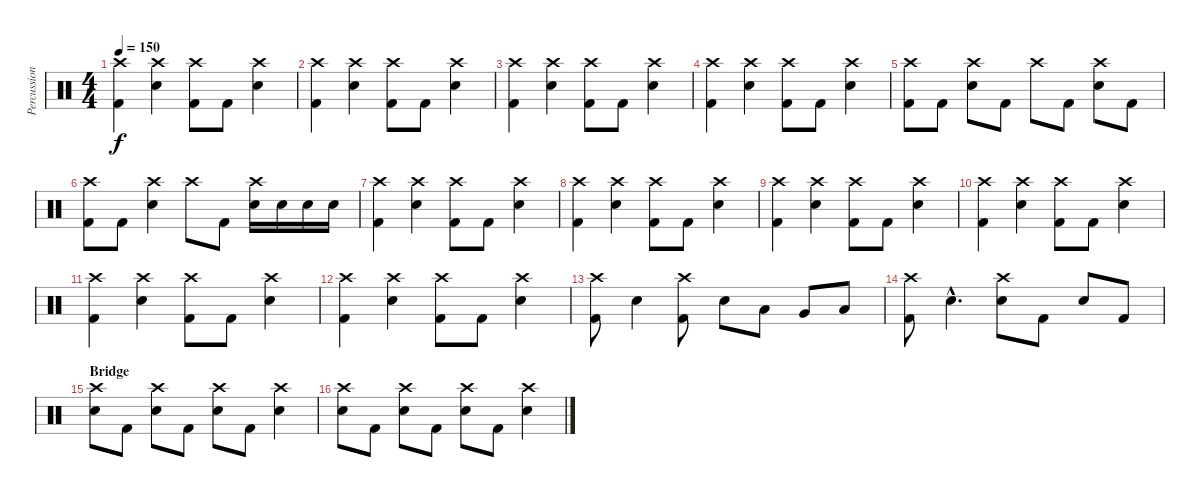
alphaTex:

\track ("Percussion" "Percussion") {instrument percussion}
\staff {score}
\articulation defaults
\ts (4 4)
\tempo 150
\clef neutral
\ks c
("Crash high (hit)" "Kick (hit) 2").4{dy f} ("Crash high (hit)" "Electric Snare (hit)").4 ("Crash high (hit)" "Kick (hit) 2").8 "Kick (hit) 2".8 ("Crash high (hit)" "Electric Snare (hit)").4 |
("Crash high (hit)" "Kick (hit) 2").4 ("Crash high (hit)" "Electric Snare (hit)").4 ("Crash high (hit)" "Kick (hit) 2").8 "Kick (hit) 2".8 ("Crash high (hit)" "Electric Snare (hit)").4 |
("Crash high (hit)" "Kick (hit) 2").4 ("Crash high (hit)" "Electric Snare (hit)").4 ("Crash high (hit)" "Kick (hit) 2").8 "Kick (hit) 2".8 ("Crash high (hit)" "Electric Snare (hit)").4 |
("Crash high (hit)" "Kick (hit) 2").4 ("Crash high (hit)" "Electric Snare (hit)").4 ("Crash high (hit)" "Kick (hit) 2").8 "Kick (hit) 2".8 ("Crash high (hit)" "Electric Snare (hit)").4 |
("Crash high (hit)" "Kick (hit) 2").8 "Kick (hit) 2".8 ("Crash high (hit)" "Electric Snare (hit)").8 "Kick (hit) 2".8 "Crash high (hit)".8 "Kick (hit) 2".8 ("Crash high (hit)" "Electric Snare (hit)").8 "Kick (hit) 2".8 |
("Crash high (hit)" "Kick (hit) 2").8 "Kick (hit) 2".8 ("Crash high (hit)" "Electric Snare (hit)").4 "Crash high (hit)".8 "Kick (hit) 2".8 ("Crash high (hit)" "Electric Snare (hit)").16 "Electric Snare (hit)".16 "Electric Snare (hit)".16 "Electric Snare (hit)".16 |
("Crash high (hit)" "Kick (hit) 2").4 ("Crash high (hit)" "Electric Snare (hit)").4 ("Crash high (hit)" "Kick (hit) 2").8 "Kick (hit) 2".8 ("Crash high (hit)" "Electric Snare (hit)").4 |
("Crash high (hit)" "Kick (hit) 2").4 ("Crash high (hit)" "Electric Snare (hit)").4 ("Crash high (hit)" "Kick (hit) 2").8 "Kick (hit) 2".8 ("Crash high (hit)" "Electric Snare (hit)").4 |
("Crash high (hit)" "Kick (hit) 2").4 ("Crash high (hit)" "Electric Snare (hit)").4 ("Crash high (hit)" "Kick (hit) 2").8 "Kick (hit) 2".8 ("Crash high (hit)" "Electric Snare (hit)").4 |
("Crash high (hit)" "Kick (hit) 2").4 ("Crash high (hit)" "Electric Snare (hit)").4 ("Crash high (hit)" "Kick (hit) 2").8 "Kick (hit) 2".8 ("Crash high (hit)" "Electric Snare (hit)").4 |
("Crash high (hit)" "Kick (hit) 2").4 ("Crash high (hit)" "Electric Snare (hit)").4 ("Crash high (hit)" "Kick (hit) 2").8 "Kick (hit) 2".8 ("Crash high (hit)" "Electric Snare (hit)").4 |
("Crash high (hit)" "Kick (hit) 2").4 ("Crash high (hit)" "Electric Snare (hit)").4 ("Crash high (hit)" "Kick (hit) 2").8 "Kick (hit) 2".8 ("Crash high (hit)" "Electric Snare (hit)").4 |
("Crash high (hit)" "Kick (hit) 2").8 "Electric Snare (hit)".4 ("Crash high (hit)" "Kick (hit) 2").8 "Electric Snare (hit)".8 "Low Tom (hit)".8 "Very Low Tom (hit)".8 "Low Floor Tom (hit)".8 |
("Crash high (hit)" "Kick (hit) 2").8 "Electric Snare (hit)"{hac}.4{d} ("Crash high (hit)" "Electric Snare (hit)").8 "Kick (hit) 2".8 "Electric Snare (hit)".8 "Kick (hit) 2".8 |
\section ("" "Bridge")
("Crash high (hit)" "Electric Snare (hit)").8 "Kick (hit) 2".8 ("Crash high (hit)" "Electric Snare (hit)").8 "Kick (hit) 2".8 ("Crash high (hit)" "Electric Snare (hit)").8 "Kick (hit) 2".8 ("Crash high (hit)" "Electric Snare (hit)").4 |
("Crash high (hit)" "Electric Snare (hit)").8 "Kick (hit) 2".8 ("Crash high (hit)" "Electric Snare (hit)").8 "Kick (hit) 2".8 ("Crash high (hit)" "Electric Snare (hit)").8 "Kick (hit) 2".8 ("Crash high (hit)" "Electric Snare (hit)").4
